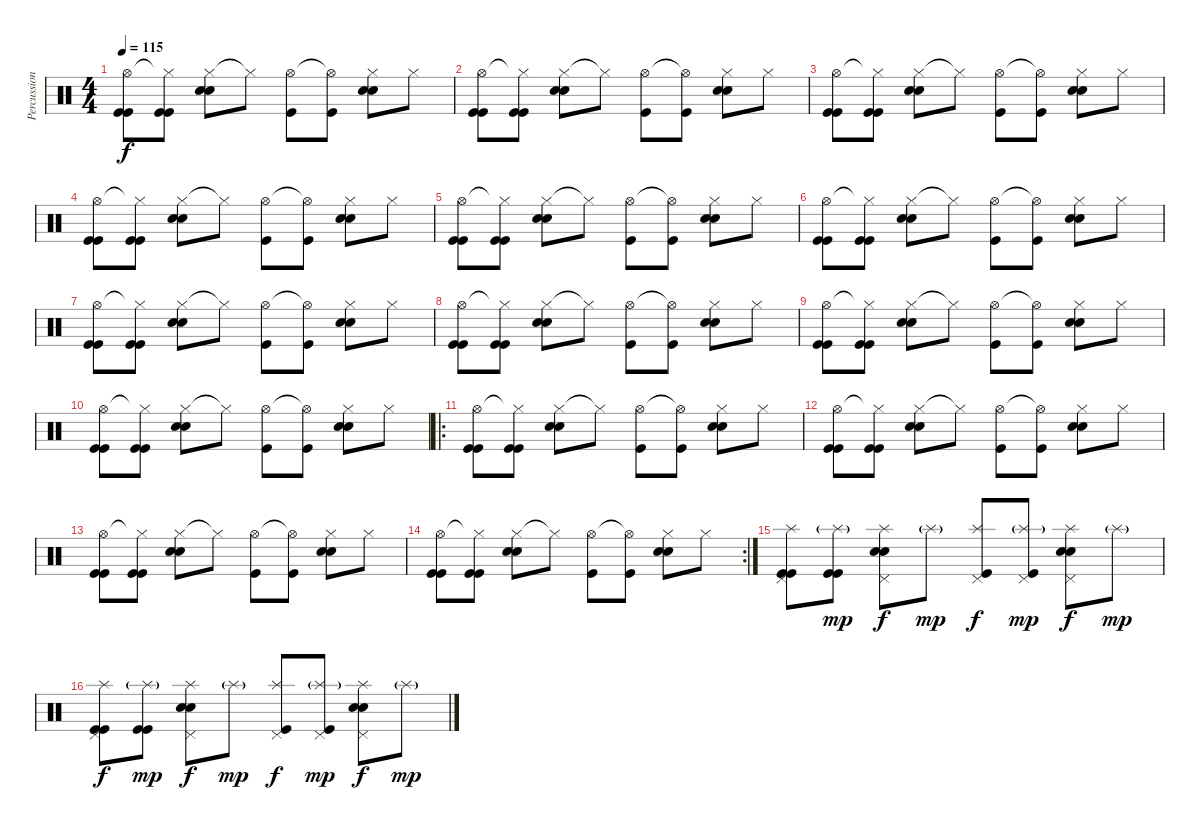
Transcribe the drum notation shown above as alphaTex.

\track ("Percussions" "Percussion") {instrument percussion}
\staff {score}
\articulation defaults
\ts (4 4)
\tempo 115
\clef neutral
\ks c
("Hi-Hat (open)" "Kick (hit)" "Kick (hit)").8{dy f} ("Hi-Hat (closed)"{t} "Kick (hit)" "Kick (hit)").8 ("Hi-Hat (closed)" "Snare (hit) 2" "Snare (hit) 2").8 "Hi-Hat (closed)"{t}.8 ("Hi-Hat (open)" "Kick (hit)").8 ("Hi-Hat (open)"{t} "Kick (hit)").8 ("Hi-Hat (closed)" "Snare (hit) 2" "Snare (hit) 2").8 "Hi-Hat (closed)".8 |
("Hi-Hat (open)" "Kick (hit)" "Kick (hit)").8 ("Hi-Hat (closed)"{t} "Kick (hit)" "Kick (hit)").8 ("Hi-Hat (closed)" "Snare (hit) 2" "Snare (hit) 2").8 "Hi-Hat (closed)"{t}.8 ("Hi-Hat (open)" "Kick (hit)").8 ("Hi-Hat (open)"{t} "Kick (hit)").8 ("Hi-Hat (closed)" "Snare (hit) 2" "Snare (hit) 2").8 "Hi-Hat (closed)".8 |
("Hi-Hat (open)" "Kick (hit)" "Kick (hit)").8 ("Hi-Hat (closed)"{t} "Kick (hit)" "Kick (hit)").8 ("Hi-Hat (closed)" "Snare (hit) 2" "Snare (hit) 2").8 "Hi-Hat (closed)"{t}.8 ("Hi-Hat (open)" "Kick (hit)").8 ("Hi-Hat (open)"{t} "Kick (hit)").8 ("Hi-Hat (closed)" "Snare (hit) 2" "Snare (hit) 2").8 "Hi-Hat (closed)".8 |
("Hi-Hat (open)" "Kick (hit)" "Kick (hit)").8 ("Hi-Hat (closed)"{t} "Kick (hit)" "Kick (hit)").8 ("Hi-Hat (closed)" "Snare (hit) 2" "Snare (hit) 2").8 "Hi-Hat (closed)"{t}.8 ("Hi-Hat (open)" "Kick (hit)").8 ("Hi-Hat (open)"{t} "Kick (hit)").8 ("Hi-Hat (closed)" "Snare (hit) 2" "Snare (hit) 2").8 "Hi-Hat (closed)".8 |
("Hi-Hat (open)" "Kick (hit)" "Kick (hit)").8 ("Hi-Hat (closed)"{t} "Kick (hit)" "Kick (hit)").8 ("Hi-Hat (closed)" "Snare (hit) 2" "Snare (hit) 2").8 "Hi-Hat (closed)"{t}.8 ("Hi-Hat (open)" "Kick (hit)").8 ("Hi-Hat (open)"{t} "Kick (hit)").8 ("Hi-Hat (closed)" "Snare (hit) 2" "Snare (hit) 2").8 "Hi-Hat (closed)".8 |
("Hi-Hat (open)" "Kick (hit)" "Kick (hit)").8 ("Hi-Hat (closed)"{t} "Kick (hit)" "Kick (hit)").8 ("Hi-Hat (closed)" "Snare (hit) 2" "Snare (hit) 2").8 "Hi-Hat (closed)"{t}.8 ("Hi-Hat (open)" "Kick (hit)").8 ("Hi-Hat (open)"{t} "Kick (hit)").8 ("Hi-Hat (closed)" "Snare (hit) 2" "Snare (hit) 2").8 "Hi-Hat (closed)".8 |
("Hi-Hat (open)" "Kick (hit)" "Kick (hit)").8 ("Hi-Hat (closed)"{t} "Kick (hit)" "Kick (hit)").8 ("Hi-Hat (closed)" "Snare (hit) 2" "Snare (hit) 2").8 "Hi-Hat (closed)"{t}.8 ("Hi-Hat (open)" "Kick (hit)").8 ("Hi-Hat (open)"{t} "Kick (hit)").8 ("Hi-Hat (closed)" "Snare (hit) 2" "Snare (hit) 2").8 "Hi-Hat (closed)".8 |
("Hi-Hat (open)" "Kick (hit)" "Kick (hit)").8 ("Hi-Hat (closed)"{t} "Kick (hit)" "Kick (hit)").8 ("Hi-Hat (closed)" "Snare (hit) 2" "Snare (hit) 2").8 "Hi-Hat (closed)"{t}.8 ("Hi-Hat (open)" "Kick (hit)").8 ("Hi-Hat (open)"{t} "Kick (hit)").8 ("Hi-Hat (closed)" "Snare (hit) 2" "Snare (hit) 2").8 "Hi-Hat (closed)".8 |
("Hi-Hat (open)" "Kick (hit)" "Kick (hit)").8 ("Hi-Hat (closed)"{t} "Kick (hit)" "Kick (hit)").8 ("Hi-Hat (closed)" "Snare (hit) 2" "Snare (hit) 2").8 "Hi-Hat (closed)"{t}.8 ("Hi-Hat (open)" "Kick (hit)").8 ("Hi-Hat (open)"{t} "Kick (hit)").8 ("Hi-Hat (closed)" "Snare (hit) 2" "Snare (hit) 2").8 "Hi-Hat (closed)".8 |
("Hi-Hat (open)" "Kick (hit)" "Kick (hit)").8 ("Hi-Hat (closed)"{t} "Kick (hit)" "Kick (hit)").8 ("Hi-Hat (closed)" "Snare (hit) 2" "Snare (hit) 2").8 "Hi-Hat (closed)"{t}.8 ("Hi-Hat (open)" "Kick (hit)").8 ("Hi-Hat (open)"{t} "Kick (hit)").8 ("Hi-Hat (closed)" "Snare (hit) 2" "Snare (hit) 2").8 "Hi-Hat (closed)".8 |
\ro
("Hi-Hat (open)" "Kick (hit)" "Kick (hit)").8 ("Hi-Hat (closed)"{t} "Kick (hit)" "Kick (hit)").8 ("Hi-Hat (closed)" "Snare (hit) 2" "Snare (hit) 2").8 "Hi-Hat (closed)"{t}.8 ("Hi-Hat (open)" "Kick (hit)").8 ("Hi-Hat (open)"{t} "Kick (hit)").8 ("Hi-Hat (closed)" "Snare (hit) 2" "Snare (hit) 2").8 "Hi-Hat (closed)".8 |
("Hi-Hat (open)" "Kick (hit)" "Kick (hit)").8 ("Hi-Hat (closed)"{t} "Kick (hit)" "Kick (hit)").8 ("Hi-Hat (closed)" "Snare (hit) 2" "Snare (hit) 2").8 "Hi-Hat (closed)"{t}.8 ("Hi-Hat (open)" "Kick (hit)").8 ("Hi-Hat (open)"{t} "Kick (hit)").8 ("Hi-Hat (closed)" "Snare (hit) 2" "Snare (hit) 2").8 "Hi-Hat (closed)".8 |
("Hi-Hat (open)" "Kick (hit)" "Kick (hit)").8 ("Hi-Hat (closed)"{t} "Kick (hit)" "Kick (hit)").8 ("Hi-Hat (closed)" "Snare (hit) 2" "Snare (hit) 2").8 "Hi-Hat (closed)"{t}.8 ("Hi-Hat (open)" "Kick (hit)").8 ("Hi-Hat (open)"{t} "Kick (hit)").8 ("Hi-Hat (closed)" "Snare (hit) 2" "Snare (hit) 2").8 "Hi-Hat (closed)".8 |
\rc 2
("Hi-Hat (open)" "Kick (hit)" "Kick (hit)").8 ("Hi-Hat (closed)"{t} "Kick (hit)" "Kick (hit)").8 ("Hi-Hat (closed)" "Snare (hit) 2" "Snare (hit) 2").8 "Hi-Hat (closed)"{t}.8 ("Hi-Hat (open)" "Kick (hit)").8 ("Hi-Hat (open)"{t} "Kick (hit)").8 ("Hi-Hat (closed)" "Snare (hit) 2" "Snare (hit) 2").8 "Hi-Hat (closed)".8 |
("Splash (hit)" "Pedal Hi-Hat (hit)" "Kick (hit)" "Kick (hit)").8 ("Splash (hit)"{g} "Kick (hit)" "Kick (hit)").8{dy mp} ("Splash (hit)" "Pedal Hi-Hat (hit)" "Snare (hit) 2" "Snare (hit) 2").8{dy f} "Splash (hit)"{g}.8{dy mp} ("Splash (hit)" "Pedal Hi-Hat (hit)" "Kick (hit)").8{dy f} ("Splash (hit)"{g} "Pedal Hi-Hat (hit)" "Kick (hit)").8{dy mp} ("Splash (hit)" "Pedal Hi-Hat (hit)" "Snare (hit) 2" "Snare (hit) 2").8{dy f} "Splash (hit)"{g}.8{dy mp} |
("Splash (hit)" "Pedal Hi-Hat (hit)" "Kick (hit)" "Kick (hit)").8{dy f} ("Splash (hit)"{g} "Kick (hit)" "Kick (hit)").8{dy mp} ("Splash (hit)" "Pedal Hi-Hat (hit)" "Snare (hit) 2" "Snare (hit) 2").8{dy f} "Splash (hit)"{g}.8{dy mp} ("Splash (hit)" "Pedal Hi-Hat (hit)" "Kick (hit)").8{dy f} ("Splash (hit)"{g} "Pedal Hi-Hat (hit)" "Kick (hit)").8{dy mp} ("Splash (hit)" "Pedal Hi-Hat (hit)" "Snare (hit) 2" "Snare (hit) 2").8{dy f} "Splash (hit)"{g}.8{dy mp}
